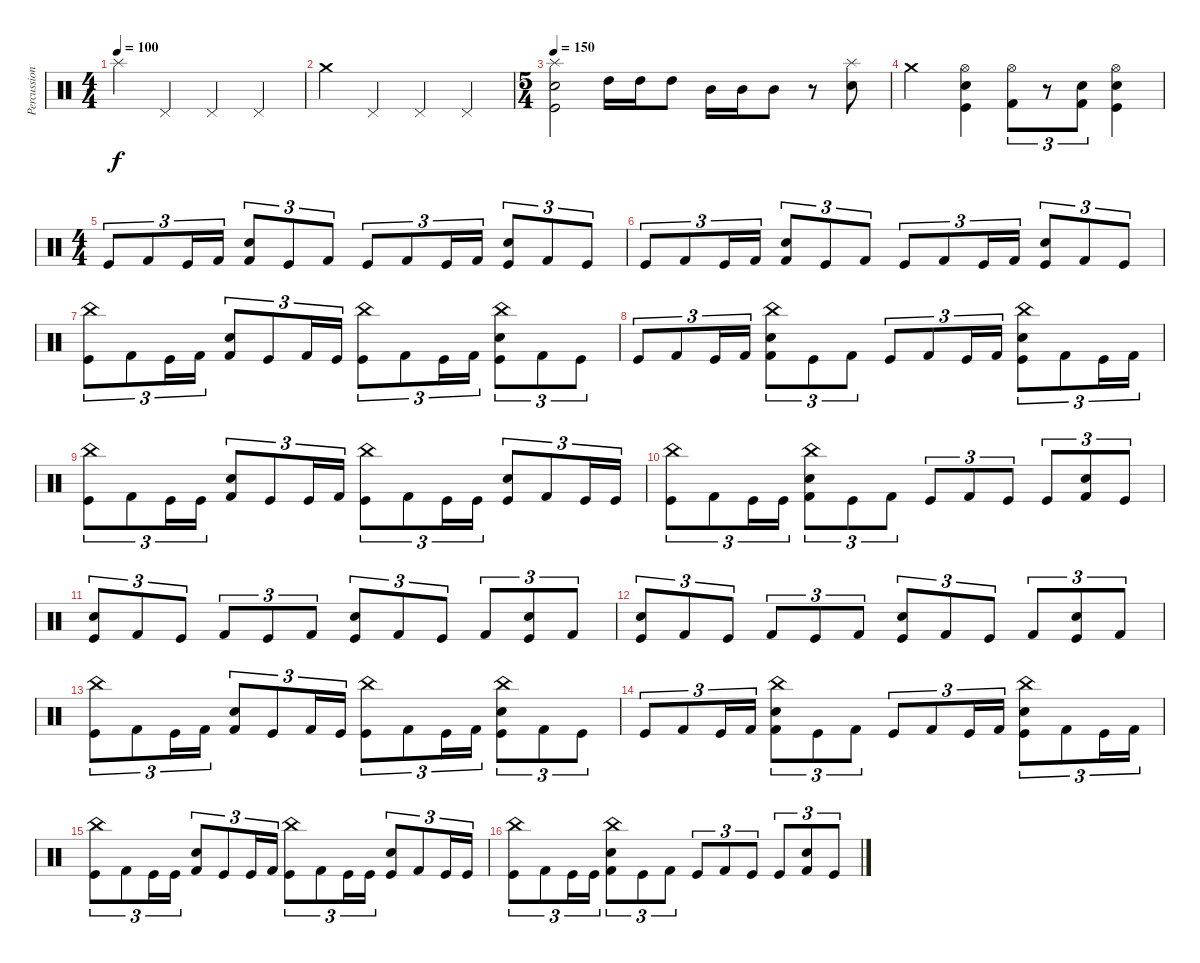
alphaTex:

\track ("Percussioni" "Percussion") {instrument percussion}
\staff {score}
\articulation defaults
\ts (4 4)
\tempo 100
\clef neutral
\ks c "Splash (hit)".4{dy f} "Pedal Hi-Hat (hit)".4 "Pedal Hi-Hat (hit)".4 "Pedal Hi-Hat (hit)".4
|
"Crash medium (hit)".4 "Pedal Hi-Hat (hit)".4 "Pedal Hi-Hat (hit)".4 "Pedal Hi-Hat (hit)".4 |
\ts (5 4)
\tempo 150
("Splash (hit)" "Snare (hit) 2" "Kick (hit)").2 "High Tom (hit)".16 "High Tom (hit)".16 "High Tom (hit)".8 "Mid Tom (hit)".16 "Mid Tom (hit)".16 "Mid Tom (hit)".8 r.8 ("Splash (hit)" "Snare (hit) 2").8 |
"Crash medium (hit)".2 ("Hi-Hat (open)" "Snare (hit) 2" "Kick (hit)").4 ("Hi-Hat (open)" "Kick (hit) 2").8{tu (3 2)} r.8{tu (3 2)} ("Snare (hit) 2" "Kick (hit) 2").8{tu (3 2)} ("Hi-Hat (open)" "Snare (hit) 2" "Kick (hit)").4 |
\ts (4 4)
"Kick (hit)".8{tu (3 2)} "Kick (hit) 2".8{tu (3 2)} "Kick (hit)".16{tu (3 2)} "Kick (hit) 2".16{tu (3 2)} ("Snare (hit) 2" "Kick (hit) 2").8{tu (3 2)} "Kick (hit)".8{tu (3 2)} "Kick (hit) 2".8{tu (3 2)} "Kick (hit)".8{tu (3 2)} "Kick (hit) 2".8{tu (3 2)} "Kick (hit)".16{tu (3 2)} "Kick (hit) 2".16{tu (3 2)} ("Snare (hit) 2" "Kick (hit)").8{tu (3 2)} "Kick (hit) 2".8{tu (3 2)} "Kick (hit)".8{tu (3 2)} |
"Kick (hit)".8{tu (3 2)} "Kick (hit) 2".8{tu (3 2)} "Kick (hit)".16{tu (3 2)} "Kick (hit) 2".16{tu (3 2)} ("Snare (hit) 2" "Kick (hit) 2").8{tu (3 2)} "Kick (hit)".8{tu (3 2)} "Kick (hit) 2".8{tu (3 2)} "Kick (hit)".8{tu (3 2)} "Kick (hit) 2".8{tu (3 2)} "Kick (hit)".16{tu (3 2)} "Kick (hit) 2".16{tu (3 2)} ("Snare (hit) 2" "Kick (hit)").8{tu (3 2)} "Kick (hit) 2".8{tu (3 2)} "Kick (hit)".8{tu (3 2)} |
("China (hit)" "Kick (hit)").8{tu (3 2)} "Kick (hit) 2".8{tu (3 2)} "Kick (hit)".16{tu (3 2)} "Kick (hit) 2".16{tu (3 2)} ("Snare (hit) 2" "Kick (hit) 2").8{tu (3 2)} "Kick (hit)".8{tu (3 2)} "Kick (hit) 2".16{tu (3 2)} "Kick (hit)".16{tu (3 2)} ("China (hit)" "Kick (hit)").8{tu (3 2)} "Kick (hit) 2".8{tu (3 2)} "Kick (hit)".16{tu (3 2)} "Kick (hit) 2".16{tu (3 2)} ("China (hit)" "Snare (hit) 2" "Kick (hit)").8{tu (3 2)} "Kick (hit) 2".8{tu (3 2)} "Kick (hit)".8{tu (3 2)} |
"Kick (hit)".8{tu (3 2)} "Kick (hit) 2".8{tu (3 2)} "Kick (hit)".16{tu (3 2)} "Kick (hit) 2".16{tu (3 2)} ("China (hit)" "Snare (hit) 2" "Kick (hit) 2").8{tu (3 2)} "Kick (hit)".8{tu (3 2)} "Kick (hit) 2".8{tu (3 2)} "Kick (hit)".8{tu (3 2)} "Kick (hit) 2".8{tu (3 2)} "Kick (hit)".16{tu (3 2)} "Kick (hit) 2".16{tu (3 2)} ("China (hit)" "Snare (hit) 2" "Kick (hit)").8{tu (3 2)} "Kick (hit) 2".8{tu (3 2)} "Kick (hit)".16{tu (3 2)} "Kick (hit) 2".16{tu (3 2)} |
("China (hit)" "Kick (hit)").8{tu (3 2)} "Kick (hit) 2".8{tu (3 2)} "Kick (hit)".16{tu (3 2)} "Kick (hit)".16{tu (3 2)} ("Snare (hit) 2" "Kick (hit) 2").8{tu (3 2)} "Kick (hit)".8{tu (3 2)} "Kick (hit)".16{tu (3 2)} "Kick (hit) 2".16{tu (3 2)} ("China (hit)" "Kick (hit)").8{tu (3 2)} "Kick (hit) 2".8{tu (3 2)} "Kick (hit)".16{tu (3 2)} "Kick (hit)".16{tu (3 2)} ("Snare (hit) 2" "Kick (hit)").8{tu (3 2)} "Kick (hit) 2".8{tu (3 2)} "Kick (hit)".16{tu (3 2)} "Kick (hit)".16{tu (3 2)} |
("China (hit)" "Kick (hit)").8{tu (3 2)} "Kick (hit) 2".8{tu (3 2)} "Kick (hit)".16{tu (3 2)} "Kick (hit)".16{tu (3 2)} ("China (hit)" "Snare (hit) 2" "Kick (hit) 2").8{tu (3 2)} "Kick (hit)".8{tu (3 2)} "Kick (hit) 2".8{tu (3 2)} "Kick (hit)".8{tu (3 2)} "Kick (hit) 2".8{tu (3 2)} "Kick (hit)".8{tu (3 2)} "Kick (hit)".8{tu (3 2)} ("Snare (hit) 2" "Kick (hit) 2").8{tu (3 2)} "Kick (hit)".8{tu (3 2)} |
("Snare (hit) 2" "Kick (hit)").8{tu (3 2)} "Kick (hit) 2".8{tu (3 2)} "Kick (hit)".8{tu (3 2)} "Kick (hit) 2".8{tu (3 2)} "Kick (hit)".8{tu (3 2)} "Kick (hit) 2".8{tu (3 2)} ("Snare (hit) 2" "Kick (hit)").8{tu (3 2)} "Kick (hit) 2".8{tu (3 2)} "Kick (hit)".8{tu (3 2)} "Kick (hit) 2".8{tu (3 2)} ("Snare (hit) 2" "Kick (hit)").8{tu (3 2)} "Kick (hit) 2".8{tu (3 2)} |
("Snare (hit) 2" "Kick (hit)").8{tu (3 2)} "Kick (hit) 2".8{tu (3 2)} "Kick (hit)".8{tu (3 2)} "Kick (hit) 2".8{tu (3 2)} "Kick (hit)".8{tu (3 2)} "Kick (hit) 2".8{tu (3 2)} ("Snare (hit) 2" "Kick (hit)").8{tu (3 2)} "Kick (hit) 2".8{tu (3 2)} "Kick (hit)".8{tu (3 2)} "Kick (hit) 2".8{tu (3 2)} ("Snare (hit) 2" "Kick (hit)").8{tu (3 2)} "Kick (hit) 2".8{tu (3 2)} |
("China (hit)" "Kick (hit)").8{tu (3 2)} "Kick (hit) 2".8{tu (3 2)} "Kick (hit)".16{tu (3 2)} "Kick (hit) 2".16{tu (3 2)} ("Snare (hit) 2" "Kick (hit) 2").8{tu (3 2)} "Kick (hit)".8{tu (3 2)} "Kick (hit) 2".16{tu (3 2)} "Kick (hit)".16{tu (3 2)} ("China (hit)" "Kick (hit)").8{tu (3 2)} "Kick (hit) 2".8{tu (3 2)} "Kick (hit)".16{tu (3 2)} "Kick (hit) 2".16{tu (3 2)} ("China (hit)" "Snare (hit) 2" "Kick (hit)").8{tu (3 2)} "Kick (hit) 2".8{tu (3 2)} "Kick (hit)".8{tu (3 2)} |
"Kick (hit)".8{tu (3 2)} "Kick (hit) 2".8{tu (3 2)} "Kick (hit)".16{tu (3 2)} "Kick (hit) 2".16{tu (3 2)} ("China (hit)" "Snare (hit) 2" "Kick (hit) 2").8{tu (3 2)} "Kick (hit)".8{tu (3 2)} "Kick (hit) 2".8{tu (3 2)} "Kick (hit)".8{tu (3 2)} "Kick (hit) 2".8{tu (3 2)} "Kick (hit)".16{tu (3 2)} "Kick (hit) 2".16{tu (3 2)} ("China (hit)" "Snare (hit) 2" "Kick (hit)").8{tu (3 2)} "Kick (hit) 2".8{tu (3 2)} "Kick (hit)".16{tu (3 2)} "Kick (hit) 2".16{tu (3 2)} |
("China (hit)" "Kick (hit)").8{tu (3 2)} "Kick (hit) 2".8{tu (3 2)} "Kick (hit)".16{tu (3 2)} "Kick (hit)".16{tu (3 2)} ("Snare (hit) 2" "Kick (hit) 2").8{tu (3 2)} "Kick (hit)".8{tu (3 2)} "Kick (hit)".16{tu (3 2)} "Kick (hit) 2".16{tu (3 2)} ("China (hit)" "Kick (hit)").8{tu (3 2)} "Kick (hit) 2".8{tu (3 2)} "Kick (hit)".16{tu (3 2)} "Kick (hit)".16{tu (3 2)} ("Snare (hit) 2" "Kick (hit)").8{tu (3 2)} "Kick (hit) 2".8{tu (3 2)} "Kick (hit)".16{tu (3 2)} "Kick (hit)".16{tu (3 2)} |
("China (hit)" "Kick (hit)").8{tu (3 2)} "Kick (hit) 2".8{tu (3 2)} "Kick (hit)".16{tu (3 2)} "Kick (hit)".16{tu (3 2)} ("China (hit)" "Snare (hit) 2" "Kick (hit) 2").8{tu (3 2)} "Kick (hit)".8{tu (3 2)} "Kick (hit) 2".8{tu (3 2)} "Kick (hit)".8{tu (3 2)} "Kick (hit) 2".8{tu (3 2)} "Kick (hit)".8{tu (3 2)} "Kick (hit)".8{tu (3 2)} ("Snare (hit) 2" "Kick (hit) 2").8{tu (3 2)} "Kick (hit)".8{tu (3 2)}
